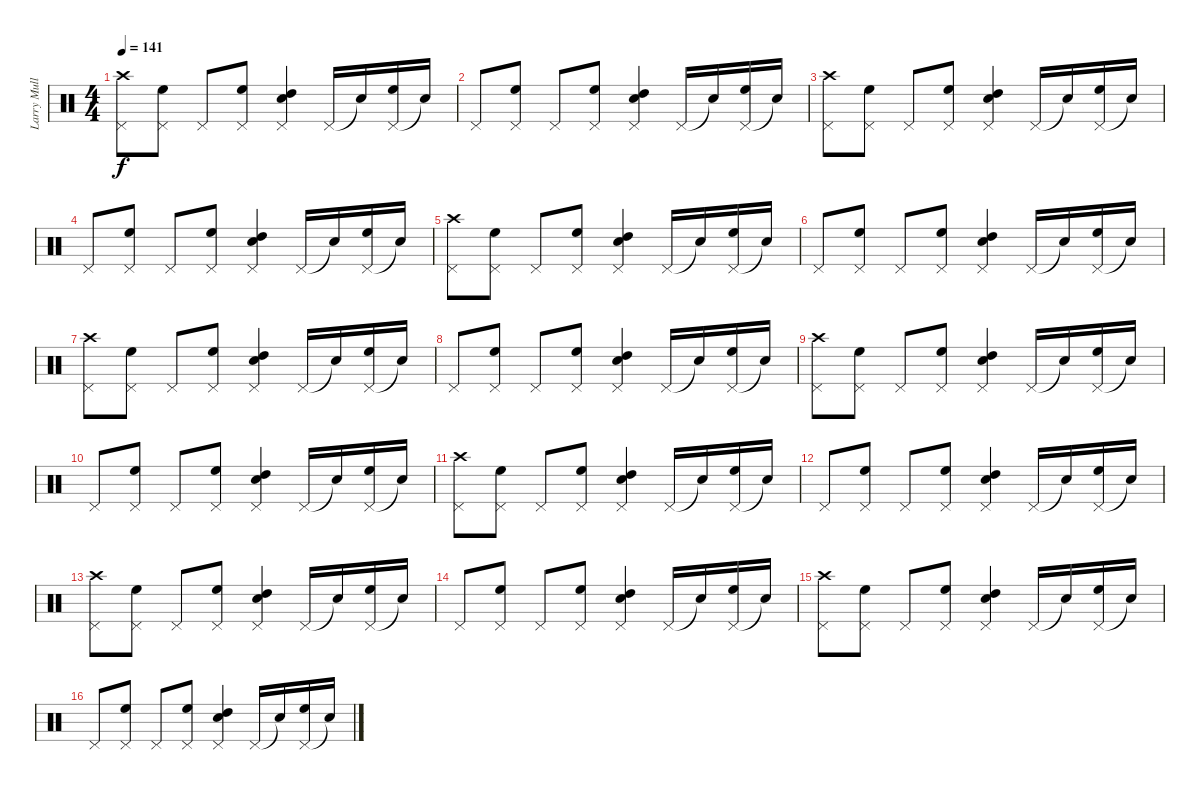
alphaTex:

\track ("Larry Mullen Jr's Drums" "Larry Mull") {instrument percussion}
\staff {score}
\articulation defaults
\ts (4 4)
\tempo 141
\clef neutral
\ks c
("Pedal Hi-Hat (hit)" "Crash high (hit)").8{dy f} ("Pedal Hi-Hat (hit)" "High Floor Tom (hit)").8 "Pedal Hi-Hat (hit)".8 ("Pedal Hi-Hat (hit)" "High Floor Tom (hit)").8 ("Pedal Hi-Hat (hit)" "High Tom (hit)" "Electric Snare (hit)").4 "Pedal Hi-Hat (hit)".16 "Snare (hit)"{t}.16 ("Pedal Hi-Hat (hit)" "High Floor Tom (hit)").16 "Snare (hit)"{t}.16 |
"Pedal Hi-Hat (hit)".8 ("Pedal Hi-Hat (hit)" "High Floor Tom (hit)").8 "Pedal Hi-Hat (hit)".8 ("Pedal Hi-Hat (hit)" "High Floor Tom (hit)").8 ("Pedal Hi-Hat (hit)" "High Tom (hit)" "Electric Snare (hit)").4 "Pedal Hi-Hat (hit)".16 "Snare (hit)"{t}.16 ("Pedal Hi-Hat (hit)" "High Floor Tom (hit)").16 "Snare (hit)"{t}.16 |
("Pedal Hi-Hat (hit)" "Crash high (hit)").8 ("Pedal Hi-Hat (hit)" "High Floor Tom (hit)").8 "Pedal Hi-Hat (hit)".8 ("Pedal Hi-Hat (hit)" "High Floor Tom (hit)").8 ("Pedal Hi-Hat (hit)" "High Tom (hit)" "Electric Snare (hit)").4 "Pedal Hi-Hat (hit)".16 "Snare (hit)"{t}.16 ("Pedal Hi-Hat (hit)" "High Floor Tom (hit)").16 "Snare (hit)"{t}.16 |
"Pedal Hi-Hat (hit)".8 ("Pedal Hi-Hat (hit)" "High Floor Tom (hit)").8 "Pedal Hi-Hat (hit)".8 ("Pedal Hi-Hat (hit)" "High Floor Tom (hit)").8 ("Pedal Hi-Hat (hit)" "High Tom (hit)" "Electric Snare (hit)").4 "Pedal Hi-Hat (hit)".16 "Snare (hit)"{t}.16 ("Pedal Hi-Hat (hit)" "High Floor Tom (hit)").16 "Snare (hit)"{t}.16 |
("Pedal Hi-Hat (hit)" "Crash high (hit)").8 ("Pedal Hi-Hat (hit)" "High Floor Tom (hit)").8 "Pedal Hi-Hat (hit)".8 ("Pedal Hi-Hat (hit)" "High Floor Tom (hit)").8 ("Pedal Hi-Hat (hit)" "High Tom (hit)" "Electric Snare (hit)").4 "Pedal Hi-Hat (hit)".16 "Snare (hit)"{t}.16 ("Pedal Hi-Hat (hit)" "High Floor Tom (hit)").16 "Snare (hit)"{t}.16 |
"Pedal Hi-Hat (hit)".8 ("Pedal Hi-Hat (hit)" "High Floor Tom (hit)").8 "Pedal Hi-Hat (hit)".8 ("Pedal Hi-Hat (hit)" "High Floor Tom (hit)").8 ("Pedal Hi-Hat (hit)" "High Tom (hit)" "Electric Snare (hit)").4 "Pedal Hi-Hat (hit)".16 "Snare (hit)"{t}.16 ("Pedal Hi-Hat (hit)" "High Floor Tom (hit)").16 "Snare (hit)"{t}.16 |
("Pedal Hi-Hat (hit)" "Crash high (hit)").8 ("Pedal Hi-Hat (hit)" "High Floor Tom (hit)").8 "Pedal Hi-Hat (hit)".8 ("Pedal Hi-Hat (hit)" "High Floor Tom (hit)").8 ("Pedal Hi-Hat (hit)" "High Tom (hit)" "Electric Snare (hit)").4 "Pedal Hi-Hat (hit)".16 "Snare (hit)"{t}.16 ("Pedal Hi-Hat (hit)" "High Floor Tom (hit)").16 "Snare (hit)"{t}.16 |
"Pedal Hi-Hat (hit)".8 ("Pedal Hi-Hat (hit)" "High Floor Tom (hit)").8 "Pedal Hi-Hat (hit)".8 ("Pedal Hi-Hat (hit)" "High Floor Tom (hit)").8 ("Pedal Hi-Hat (hit)" "High Tom (hit)" "Electric Snare (hit)").4 "Pedal Hi-Hat (hit)".16 "Snare (hit)"{t}.16 ("Pedal Hi-Hat (hit)" "High Floor Tom (hit)").16 "Snare (hit)"{t}.16 |
("Pedal Hi-Hat (hit)" "Crash high (hit)").8 ("Pedal Hi-Hat (hit)" "High Floor Tom (hit)").8 "Pedal Hi-Hat (hit)".8 ("Pedal Hi-Hat (hit)" "High Floor Tom (hit)").8 ("Pedal Hi-Hat (hit)" "High Tom (hit)" "Electric Snare (hit)").4 "Pedal Hi-Hat (hit)".16 "Snare (hit)"{t}.16 ("Pedal Hi-Hat (hit)" "High Floor Tom (hit)").16 "Snare (hit)"{t}.16 |
"Pedal Hi-Hat (hit)".8 ("Pedal Hi-Hat (hit)" "High Floor Tom (hit)").8 "Pedal Hi-Hat (hit)".8 ("Pedal Hi-Hat (hit)" "High Floor Tom (hit)").8 ("Pedal Hi-Hat (hit)" "High Tom (hit)" "Electric Snare (hit)").4 "Pedal Hi-Hat (hit)".16 "Snare (hit)"{t}.16 ("Pedal Hi-Hat (hit)" "High Floor Tom (hit)").16 "Snare (hit)"{t}.16 |
("Pedal Hi-Hat (hit)" "Crash high (hit)").8 ("Pedal Hi-Hat (hit)" "High Floor Tom (hit)").8 "Pedal Hi-Hat (hit)".8 ("Pedal Hi-Hat (hit)" "High Floor Tom (hit)").8 ("Pedal Hi-Hat (hit)" "High Tom (hit)" "Electric Snare (hit)").4 "Pedal Hi-Hat (hit)".16 "Snare (hit)"{t}.16 ("Pedal Hi-Hat (hit)" "High Floor Tom (hit)").16 "Snare (hit)"{t}.16 |
"Pedal Hi-Hat (hit)".8 ("Pedal Hi-Hat (hit)" "High Floor Tom (hit)").8 "Pedal Hi-Hat (hit)".8 ("Pedal Hi-Hat (hit)" "High Floor Tom (hit)").8 ("Pedal Hi-Hat (hit)" "High Tom (hit)" "Electric Snare (hit)").4 "Pedal Hi-Hat (hit)".16 "Snare (hit)"{t}.16 ("Pedal Hi-Hat (hit)" "High Floor Tom (hit)").16 "Snare (hit)"{t}.16 |
("Pedal Hi-Hat (hit)" "Crash high (hit)").8 ("Pedal Hi-Hat (hit)" "High Floor Tom (hit)").8 "Pedal Hi-Hat (hit)".8 ("Pedal Hi-Hat (hit)" "High Floor Tom (hit)").8 ("Pedal Hi-Hat (hit)" "High Tom (hit)" "Electric Snare (hit)").4 "Pedal Hi-Hat (hit)".16 "Snare (hit)"{t}.16 ("Pedal Hi-Hat (hit)" "High Floor Tom (hit)").16 "Snare (hit)"{t}.16 |
"Pedal Hi-Hat (hit)".8 ("Pedal Hi-Hat (hit)" "High Floor Tom (hit)").8 "Pedal Hi-Hat (hit)".8 ("Pedal Hi-Hat (hit)" "High Floor Tom (hit)").8 ("Pedal Hi-Hat (hit)" "High Tom (hit)" "Electric Snare (hit)").4 "Pedal Hi-Hat (hit)".16 "Snare (hit)"{t}.16 ("Pedal Hi-Hat (hit)" "High Floor Tom (hit)").16 "Snare (hit)"{t}.16 |
("Pedal Hi-Hat (hit)" "Crash high (hit)").8 ("Pedal Hi-Hat (hit)" "High Floor Tom (hit)").8 "Pedal Hi-Hat (hit)".8 ("Pedal Hi-Hat (hit)" "High Floor Tom (hit)").8 ("Pedal Hi-Hat (hit)" "High Tom (hit)" "Electric Snare (hit)").4 "Pedal Hi-Hat (hit)".16 "Snare (hit)"{t}.16 ("Pedal Hi-Hat (hit)" "High Floor Tom (hit)").16 "Snare (hit)"{t}.16 |
"Pedal Hi-Hat (hit)".8 ("Pedal Hi-Hat (hit)" "High Floor Tom (hit)").8 "Pedal Hi-Hat (hit)".8 ("Pedal Hi-Hat (hit)" "High Floor Tom (hit)").8 ("Pedal Hi-Hat (hit)" "High Tom (hit)" "Electric Snare (hit)").4 "Pedal Hi-Hat (hit)".16 "Snare (hit)"{t}.16 ("Pedal Hi-Hat (hit)" "High Floor Tom (hit)").16 "Snare (hit)"{t}.16
